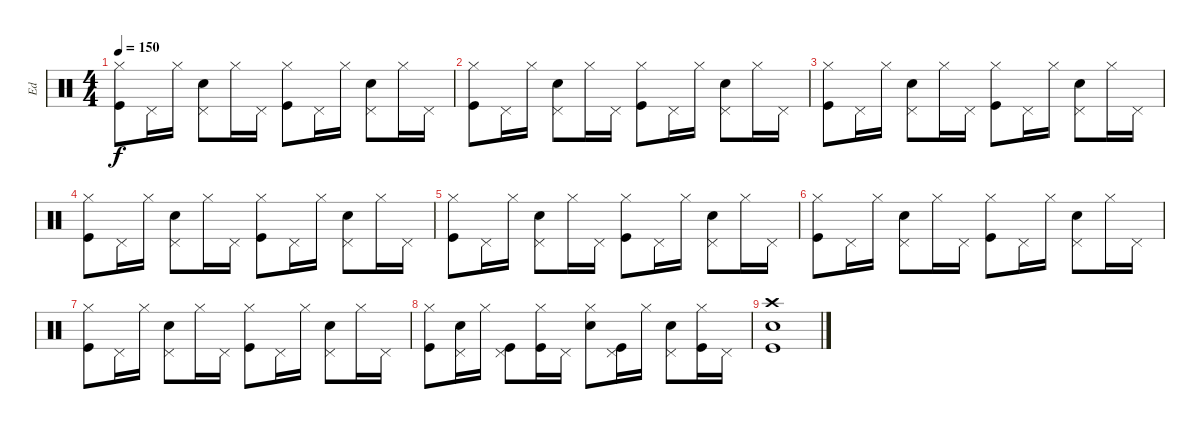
\track ("Ed" "Ed") {instrument percussion}
\staff {score}
\articulation defaults
\ts (4 4)
\tempo 150
\clef neutral
\ks c
("Hi-Hat (closed)" "Kick (hit)").8{dy f} "Pedal Hi-Hat (hit)".16 "Hi-Hat (closed)".16 ("Pedal Hi-Hat (hit)" "Electric Snare (hit)").8 "Hi-Hat (closed)".16 "Pedal Hi-Hat (hit)".16 ("Hi-Hat (closed)" "Kick (hit)").8 "Pedal Hi-Hat (hit)".16 "Hi-Hat (closed)".16 ("Pedal Hi-Hat (hit)" "Electric Snare (hit)").8 "Hi-Hat (closed)".16 "Pedal Hi-Hat (hit)".16 |
("Hi-Hat (closed)" "Kick (hit)").8 "Pedal Hi-Hat (hit)".16 "Hi-Hat (closed)".16 ("Pedal Hi-Hat (hit)" "Electric Snare (hit)").8 "Hi-Hat (closed)".16 "Pedal Hi-Hat (hit)".16 ("Hi-Hat (closed)" "Kick (hit)").8 "Pedal Hi-Hat (hit)".16 "Hi-Hat (closed)".16 ("Pedal Hi-Hat (hit)" "Electric Snare (hit)").8 "Hi-Hat (closed)".16 "Pedal Hi-Hat (hit)".16 |
("Hi-Hat (closed)" "Kick (hit)").8 "Pedal Hi-Hat (hit)".16 "Hi-Hat (closed)".16 ("Pedal Hi-Hat (hit)" "Electric Snare (hit)").8 "Hi-Hat (closed)".16 "Pedal Hi-Hat (hit)".16 ("Hi-Hat (closed)" "Kick (hit)").8 "Pedal Hi-Hat (hit)".16 "Hi-Hat (closed)".16 ("Pedal Hi-Hat (hit)" "Electric Snare (hit)").8 "Hi-Hat (closed)".16 "Pedal Hi-Hat (hit)".16 |
("Hi-Hat (closed)" "Kick (hit)").8 "Pedal Hi-Hat (hit)".16 "Hi-Hat (closed)".16 ("Pedal Hi-Hat (hit)" "Electric Snare (hit)").8 "Hi-Hat (closed)".16 "Pedal Hi-Hat (hit)".16 ("Hi-Hat (closed)" "Kick (hit)").8 "Pedal Hi-Hat (hit)".16 "Hi-Hat (closed)".16 ("Pedal Hi-Hat (hit)" "Electric Snare (hit)").8 "Hi-Hat (closed)".16 "Pedal Hi-Hat (hit)".16 |
("Hi-Hat (closed)" "Kick (hit)").8 "Pedal Hi-Hat (hit)".16 "Hi-Hat (closed)".16 ("Pedal Hi-Hat (hit)" "Electric Snare (hit)").8 "Hi-Hat (closed)".16 "Pedal Hi-Hat (hit)".16 ("Hi-Hat (closed)" "Kick (hit)").8 "Pedal Hi-Hat (hit)".16 "Hi-Hat (closed)".16 ("Pedal Hi-Hat (hit)" "Electric Snare (hit)").8 "Hi-Hat (closed)".16 "Pedal Hi-Hat (hit)".16 |
("Hi-Hat (closed)" "Kick (hit)").8 "Pedal Hi-Hat (hit)".16 "Hi-Hat (closed)".16 ("Pedal Hi-Hat (hit)" "Electric Snare (hit)").8 "Hi-Hat (closed)".16 "Pedal Hi-Hat (hit)".16 ("Hi-Hat (closed)" "Kick (hit)").8 "Pedal Hi-Hat (hit)".16 "Hi-Hat (closed)".16 ("Pedal Hi-Hat (hit)" "Electric Snare (hit)").8 "Hi-Hat (closed)".16 "Pedal Hi-Hat (hit)".16 |
("Hi-Hat (closed)" "Kick (hit)").8 "Pedal Hi-Hat (hit)".16 "Hi-Hat (closed)".16 ("Pedal Hi-Hat (hit)" "Electric Snare (hit)").8 "Hi-Hat (closed)".16 "Pedal Hi-Hat (hit)".16 ("Hi-Hat (closed)" "Kick (hit)").8 "Pedal Hi-Hat (hit)".16 "Hi-Hat (closed)".16 ("Pedal Hi-Hat (hit)" "Electric Snare (hit)").8 "Hi-Hat (closed)".16 "Pedal Hi-Hat (hit)".16 |
("Hi-Hat (closed)" "Kick (hit)").8 ("Pedal Hi-Hat (hit)" "Electric Snare (hit)").16 "Hi-Hat (closed)".16 ("Pedal Hi-Hat (hit)" "Kick (hit)").8 ("Hi-Hat (closed)" "Kick (hit)").16 "Pedal Hi-Hat (hit)".16 ("Hi-Hat (closed)" "Electric Snare (hit)").8 ("Pedal Hi-Hat (hit)" "Kick (hit)").16 "Hi-Hat (closed)".16 ("Pedal Hi-Hat (hit)" "Electric Snare (hit)").8 ("Hi-Hat (closed)" "Kick (hit)").16 "Pedal Hi-Hat (hit)".16 |
("Crash high (hit)" "Electric Snare (hit)" "Kick (hit)").1
